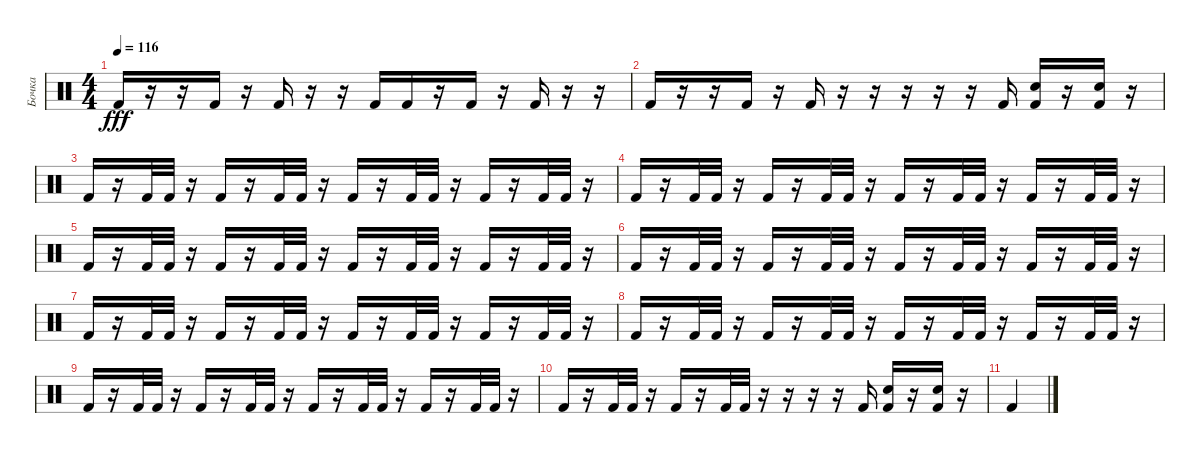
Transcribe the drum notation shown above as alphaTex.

\track ("Бочка" "Бочка") {instrument percussion}
\staff {score}
\articulation defaults
\ts (4 4)
\tempo 116
\clef neutral
\ks c "Kick (hit) 2".16{dy fff}
r.16 r.16 "Kick (hit) 2".16 r.16 "Kick (hit) 2".16 r.16 r.16 "Kick (hit) 2".16 "Kick (hit) 2".16 r.16 "Kick (hit) 2".16 r.16 "Kick (hit) 2".16 r.16 r.16 |
"Kick (hit) 2".16 r.16 r.16 "Kick (hit) 2".16 r.16 "Kick (hit) 2".16 r.16 r.16 r.16 r.16 r.16 "Kick (hit) 2".16 ("Snare (hit)" "Kick (hit) 2").16 r.16 ("Snare (hit)" "Kick (hit) 2").16 r.16 |
"Kick (hit) 2".16 r.16 "Kick (hit) 2".32 "Kick (hit) 2".32 r.16 "Kick (hit) 2".16 r.16 "Kick (hit) 2".32 "Kick (hit) 2".32 r.16 "Kick (hit) 2".16 r.16 "Kick (hit) 2".32 "Kick (hit) 2".32 r.16 "Kick (hit) 2".16 r.16 "Kick (hit) 2".32 "Kick (hit) 2".32 r.16 |
"Kick (hit) 2".16 r.16 "Kick (hit) 2".32 "Kick (hit) 2".32 r.16 "Kick (hit) 2".16 r.16 "Kick (hit) 2".32 "Kick (hit) 2".32 r.16 "Kick (hit) 2".16 r.16 "Kick (hit) 2".32 "Kick (hit) 2".32 r.16 "Kick (hit) 2".16 r.16 "Kick (hit) 2".32 "Kick (hit) 2".32 r.16 |
"Kick (hit) 2".16 r.16 "Kick (hit) 2".32 "Kick (hit) 2".32 r.16 "Kick (hit) 2".16 r.16 "Kick (hit) 2".32 "Kick (hit) 2".32 r.16 "Kick (hit) 2".16 r.16 "Kick (hit) 2".32 "Kick (hit) 2".32 r.16 "Kick (hit) 2".16 r.16 "Kick (hit) 2".32 "Kick (hit) 2".32 r.16 |
"Kick (hit) 2".16 r.16 "Kick (hit) 2".32 "Kick (hit) 2".32 r.16 "Kick (hit) 2".16 r.16 "Kick (hit) 2".32 "Kick (hit) 2".32 r.16 "Kick (hit) 2".16 r.16 "Kick (hit) 2".32 "Kick (hit) 2".32 r.16 "Kick (hit) 2".16 r.16 "Kick (hit) 2".32 "Kick (hit) 2".32 r.16 |
"Kick (hit) 2".16 r.16 "Kick (hit) 2".32 "Kick (hit) 2".32 r.16 "Kick (hit) 2".16 r.16 "Kick (hit) 2".32 "Kick (hit) 2".32 r.16 "Kick (hit) 2".16 r.16 "Kick (hit) 2".32 "Kick (hit) 2".32 r.16 "Kick (hit) 2".16 r.16 "Kick (hit) 2".32 "Kick (hit) 2".32 r.16 |
"Kick (hit) 2".16 r.16 "Kick (hit) 2".32 "Kick (hit) 2".32 r.16 "Kick (hit) 2".16 r.16 "Kick (hit) 2".32 "Kick (hit) 2".32 r.16 "Kick (hit) 2".16 r.16 "Kick (hit) 2".32 "Kick (hit) 2".32 r.16 "Kick (hit) 2".16 r.16 "Kick (hit) 2".32 "Kick (hit) 2".32 r.16 |
"Kick (hit) 2".16 r.16 "Kick (hit) 2".32 "Kick (hit) 2".32 r.16 "Kick (hit) 2".16 r.16 "Kick (hit) 2".32 "Kick (hit) 2".32 r.16 "Kick (hit) 2".16 r.16 "Kick (hit) 2".32 "Kick (hit) 2".32 r.16 "Kick (hit) 2".16 r.16 "Kick (hit) 2".32 "Kick (hit) 2".32 r.16 |
"Kick (hit) 2".16 r.16 "Kick (hit) 2".32 "Kick (hit) 2".32 r.16 "Kick (hit) 2".16 r.16 "Kick (hit) 2".32 "Kick (hit) 2".32 r.16 r.16 r.16 r.16 "Kick (hit) 2".16 ("Snare (hit)" "Kick (hit) 2").16 r.16 ("Snare (hit)" "Kick (hit) 2").16 r.16 |
"Kick (hit) 2".4
